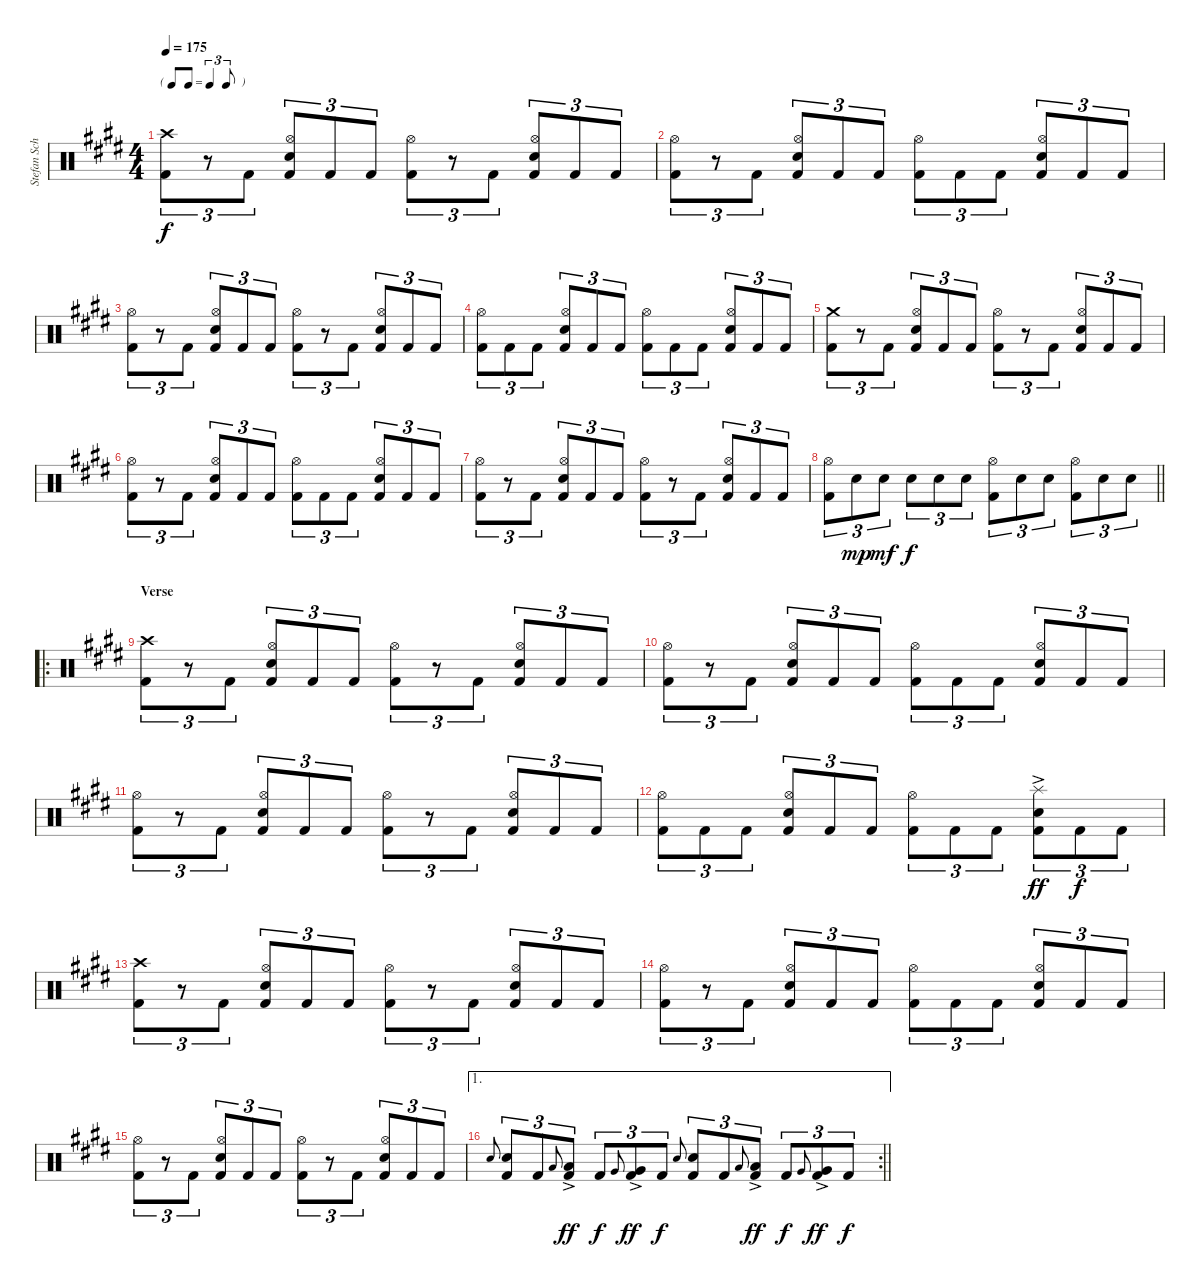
\track ("Stefan Schwarzmann" "Stefan Sch") {instrument percussion}
\staff {score}
\articulation defaults
\ts (4 4)
\tf triplet8th
\section ("" "")
\tempo 175
\clef neutral
\ks c#minor
("Crash high (hit)" "Kick (hit) 2").8{tu (3 2) dy f} r.8{tu (3 2)} "Kick (hit) 2".8{tu (3 2)} ("Hi-Hat (open)" "Snare (hit) 2" "Kick (hit) 2").8{tu (3 2)} "Kick (hit) 2".8{tu (3 2)} "Kick (hit) 2".8{tu (3 2)} ("Hi-Hat (open)" "Kick (hit) 2").8{tu (3 2)} r.8{tu (3 2)} "Kick (hit) 2".8{tu (3 2)} ("Hi-Hat (open)" "Snare (hit) 2" "Kick (hit) 2").8{tu (3 2)} "Kick (hit) 2".8{tu (3 2)} "Kick (hit) 2".8{tu (3 2)} |
("Hi-Hat (open)" "Kick (hit) 2").8{tu (3 2)} r.8{tu (3 2)} "Kick (hit) 2".8{tu (3 2)} ("Hi-Hat (open)" "Snare (hit) 2" "Kick (hit) 2").8{tu (3 2)} "Kick (hit) 2".8{tu (3 2)} "Kick (hit) 2".8{tu (3 2)} ("Hi-Hat (open)" "Kick (hit) 2").8{tu (3 2)} "Kick (hit) 2".8{tu (3 2)} "Kick (hit) 2".8{tu (3 2)} ("Hi-Hat (open)" "Snare (hit) 2" "Kick (hit) 2").8{tu (3 2)} "Kick (hit) 2".8{tu (3 2)} "Kick (hit) 2".8{tu (3 2)} |
("Hi-Hat (open)" "Kick (hit) 2").8{tu (3 2)} r.8{tu (3 2)} "Kick (hit) 2".8{tu (3 2)} ("Hi-Hat (open)" "Snare (hit) 2" "Kick (hit) 2").8{tu (3 2)} "Kick (hit) 2".8{tu (3 2)} "Kick (hit) 2".8{tu (3 2)} ("Hi-Hat (open)" "Kick (hit) 2").8{tu (3 2)} r.8{tu (3 2)} "Kick (hit) 2".8{tu (3 2)} ("Hi-Hat (open)" "Snare (hit) 2" "Kick (hit) 2").8{tu (3 2)} "Kick (hit) 2".8{tu (3 2)} "Kick (hit) 2".8{tu (3 2)} |
("Hi-Hat (open)" "Kick (hit) 2").8{tu (3 2)} "Kick (hit) 2".8{tu (3 2)} "Kick (hit) 2".8{tu (3 2)} ("Hi-Hat (open)" "Snare (hit) 2" "Kick (hit) 2").8{tu (3 2)} "Kick (hit) 2".8{tu (3 2)} "Kick (hit) 2".8{tu (3 2)} ("Hi-Hat (open)" "Kick (hit) 2").8{tu (3 2)} "Kick (hit) 2".8{tu (3 2)} "Kick (hit) 2".8{tu (3 2)} ("Hi-Hat (open)" "Snare (hit) 2" "Kick (hit) 2").8{tu (3 2)} "Kick (hit) 2".8{tu (3 2)} "Kick (hit) 2".8{tu (3 2)} |
("Crash medium (hit)" "Kick (hit) 2").8{tu (3 2)} r.8{tu (3 2)} "Kick (hit) 2".8{tu (3 2)} ("Hi-Hat (open)" "Snare (hit) 2" "Kick (hit) 2").8{tu (3 2)} "Kick (hit) 2".8{tu (3 2)} "Kick (hit) 2".8{tu (3 2)} ("Hi-Hat (open)" "Kick (hit) 2").8{tu (3 2)} r.8{tu (3 2)} "Kick (hit) 2".8{tu (3 2)} ("Hi-Hat (open)" "Snare (hit) 2" "Kick (hit) 2").8{tu (3 2)} "Kick (hit) 2".8{tu (3 2)} "Kick (hit) 2".8{tu (3 2)} |
("Hi-Hat (open)" "Kick (hit) 2").8{tu (3 2)} r.8{tu (3 2)} "Kick (hit) 2".8{tu (3 2)} ("Hi-Hat (open)" "Snare (hit) 2" "Kick (hit) 2").8{tu (3 2)} "Kick (hit) 2".8{tu (3 2)} "Kick (hit) 2".8{tu (3 2)} ("Hi-Hat (open)" "Kick (hit) 2").8{tu (3 2)} "Kick (hit) 2".8{tu (3 2)} "Kick (hit) 2".8{tu (3 2)} ("Hi-Hat (open)" "Snare (hit) 2" "Kick (hit) 2").8{tu (3 2)} "Kick (hit) 2".8{tu (3 2)} "Kick (hit) 2".8{tu (3 2)} |
("Hi-Hat (open)" "Kick (hit) 2").8{tu (3 2)} r.8{tu (3 2)} "Kick (hit) 2".8{tu (3 2)} ("Hi-Hat (open)" "Snare (hit) 2" "Kick (hit) 2").8{tu (3 2)} "Kick (hit) 2".8{tu (3 2)} "Kick (hit) 2".8{tu (3 2)} ("Hi-Hat (open)" "Kick (hit) 2").8{tu (3 2)} r.8{tu (3 2)} "Kick (hit) 2".8{tu (3 2)} ("Hi-Hat (open)" "Snare (hit) 2" "Kick (hit) 2").8{tu (3 2)} "Kick (hit) 2".8{tu (3 2)} "Kick (hit) 2".8{tu (3 2)} |
\barLineRight lightlight
("Hi-Hat (open)" "Kick (hit) 2").8{tu (3 2)} "Snare (hit) 2".8{tu (3 2) dy mp} "Snare (hit) 2".8{tu (3 2) dy mf} "Snare (hit) 2".8{tu (3 2) dy f} "Snare (hit) 2".8{tu (3 2)} "Snare (hit) 2".8{tu (3 2)} ("Hi-Hat (open)" "Kick (hit) 2").8{tu (3 2)} "Snare (hit) 2".8{tu (3 2)} "Snare (hit) 2".8{tu (3 2)} ("Hi-Hat (open)" "Kick (hit) 2").8{tu (3 2)} "Snare (hit) 2".8{tu (3 2)} "Snare (hit) 2".8{tu (3 2)} |
\ro
\section ("" "Verse")
("Crash high (hit)" "Kick (hit) 2").8{tu (3 2)} r.8{tu (3 2)} "Kick (hit) 2".8{tu (3 2)} ("Hi-Hat (open)" "Snare (hit) 2" "Kick (hit) 2").8{tu (3 2)} "Kick (hit) 2".8{tu (3 2)} "Kick (hit) 2".8{tu (3 2)} ("Hi-Hat (open)" "Kick (hit) 2").8{tu (3 2)} r.8{tu (3 2)} "Kick (hit) 2".8{tu (3 2)} ("Hi-Hat (open)" "Snare (hit) 2" "Kick (hit) 2").8{tu (3 2)} "Kick (hit) 2".8{tu (3 2)} "Kick (hit) 2".8{tu (3 2)} |
("Hi-Hat (open)" "Kick (hit) 2").8{tu (3 2)} r.8{tu (3 2)} "Kick (hit) 2".8{tu (3 2)} ("Hi-Hat (open)" "Snare (hit) 2" "Kick (hit) 2").8{tu (3 2)} "Kick (hit) 2".8{tu (3 2)} "Kick (hit) 2".8{tu (3 2)} ("Hi-Hat (open)" "Kick (hit) 2").8{tu (3 2)} "Kick (hit) 2".8{tu (3 2)} "Kick (hit) 2".8{tu (3 2)} ("Hi-Hat (open)" "Snare (hit) 2" "Kick (hit) 2").8{tu (3 2)} "Kick (hit) 2".8{tu (3 2)} "Kick (hit) 2".8{tu (3 2)} |
("Hi-Hat (open)" "Kick (hit) 2").8{tu (3 2)} r.8{tu (3 2)} "Kick (hit) 2".8{tu (3 2)} ("Hi-Hat (open)" "Snare (hit) 2" "Kick (hit) 2").8{tu (3 2)} "Kick (hit) 2".8{tu (3 2)} "Kick (hit) 2".8{tu (3 2)} ("Hi-Hat (open)" "Kick (hit) 2").8{tu (3 2)} r.8{tu (3 2)} "Kick (hit) 2".8{tu (3 2)} ("Hi-Hat (open)" "Snare (hit) 2" "Kick (hit) 2").8{tu (3 2)} "Kick (hit) 2".8{tu (3 2)} "Kick (hit) 2".8{tu (3 2)} |
("Hi-Hat (open)" "Kick (hit) 2").8{tu (3 2)} "Kick (hit) 2".8{tu (3 2)} "Kick (hit) 2".8{tu (3 2)} ("Hi-Hat (open)" "Snare (hit) 2" "Kick (hit) 2").8{tu (3 2)} "Kick (hit) 2".8{tu (3 2)} "Kick (hit) 2".8{tu (3 2)} ("Hi-Hat (open)" "Kick (hit) 2").8{tu (3 2)} "Kick (hit) 2".8{tu (3 2)} "Kick (hit) 2".8{tu (3 2)} ("Splash (hit)"{ac} "Snare (hit) 2" "Kick (hit) 2").8{tu (3 2) dy ff} "Kick (hit) 2".8{tu (3 2) dy f} "Kick (hit) 2".8{tu (3 2)} |
("Crash high (hit)" "Kick (hit) 2").8{tu (3 2)} r.8{tu (3 2)} "Kick (hit) 2".8{tu (3 2)} ("Hi-Hat (open)" "Snare (hit) 2" "Kick (hit) 2").8{tu (3 2)} "Kick (hit) 2".8{tu (3 2)} "Kick (hit) 2".8{tu (3 2)} ("Hi-Hat (open)" "Kick (hit) 2").8{tu (3 2)} r.8{tu (3 2)} "Kick (hit) 2".8{tu (3 2)} ("Hi-Hat (open)" "Snare (hit) 2" "Kick (hit) 2").8{tu (3 2)} "Kick (hit) 2".8{tu (3 2)} "Kick (hit) 2".8{tu (3 2)} |
("Hi-Hat (open)" "Kick (hit) 2").8{tu (3 2)} r.8{tu (3 2)} "Kick (hit) 2".8{tu (3 2)} ("Hi-Hat (open)" "Snare (hit) 2" "Kick (hit) 2").8{tu (3 2)} "Kick (hit) 2".8{tu (3 2)} "Kick (hit) 2".8{tu (3 2)} ("Hi-Hat (open)" "Kick (hit) 2").8{tu (3 2)} "Kick (hit) 2".8{tu (3 2)} "Kick (hit) 2".8{tu (3 2)} ("Hi-Hat (open)" "Snare (hit) 2" "Kick (hit) 2").8{tu (3 2)} "Kick (hit) 2".8{tu (3 2)} "Kick (hit) 2".8{tu (3 2)} |
("Hi-Hat (open)" "Kick (hit) 2").8{tu (3 2)} r.8{tu (3 2)} "Kick (hit) 2".8{tu (3 2)} ("Hi-Hat (open)" "Snare (hit) 2" "Kick (hit) 2").8{tu (3 2)} "Kick (hit) 2".8{tu (3 2)} "Kick (hit) 2".8{tu (3 2)} ("Hi-Hat (open)" "Kick (hit) 2").8{tu (3 2)} r.8{tu (3 2)} "Kick (hit) 2".8{tu (3 2)} ("Hi-Hat (open)" "Snare (hit) 2" "Kick (hit) 2").8{tu (3 2)} "Kick (hit) 2".8{tu (3 2)} "Kick (hit) 2".8{tu (3 2)} |
\ae 1
\rc 2
\barLineRight lightlight "Snare (hit) 2".8{gr onbeat}
("Snare (hit) 2" "Kick (hit) 2").8{tu (3 2)} "Kick (hit) 2".8{tu (3 2)} "Low Tom (hit)".8{gr onbeat} ("Low Tom (hit)"{ac} "Kick (hit) 2").8{tu (3 2) dy ff} "Kick (hit) 2".8{tu (3 2) dy f} "Very Low Tom (hit)".8{gr onbeat} ("Very Low Tom (hit)"{ac} "Kick (hit) 2").8{tu (3 2) dy ff} "Kick (hit) 2".8{tu (3 2) dy f} "Snare (hit) 2".8{gr onbeat} ("Snare (hit) 2" "Kick (hit) 2").8{tu (3 2)} "Kick (hit) 2".8{tu (3 2)} "Low Tom (hit)".8{gr onbeat} ("Low Tom (hit)"{ac} "Kick (hit) 2").8{tu (3 2) dy ff} "Kick (hit) 2".8{tu (3 2) dy f} "Very Low Tom (hit)".8{gr onbeat} ("Very Low Tom (hit)"{ac} "Kick (hit) 2").8{tu (3 2) dy ff} "Kick (hit) 2".8{tu (3 2) dy f}
